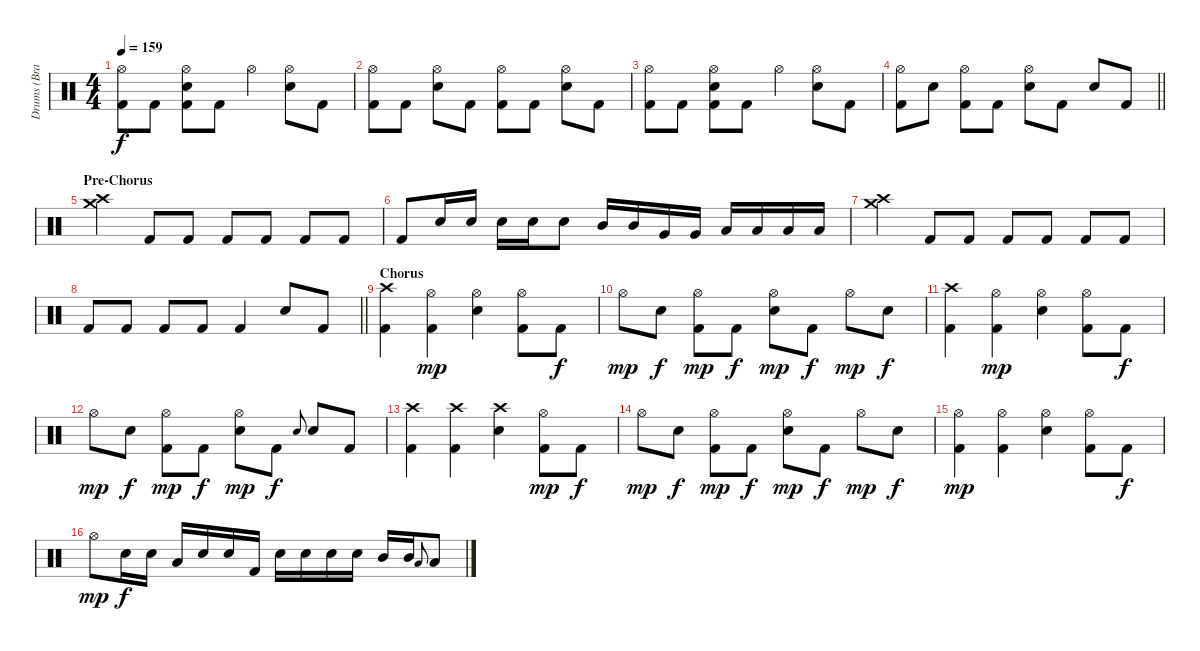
\track ("Drums (Brandon Saller)" "Drums (Bra") {instrument percussion}
\staff {score}
\articulation defaults
\ts (4 4)
\tempo 159
\clef neutral
\ks c
("Hi-Hat (open)" "Kick (hit) 2").8{dy f} "Kick (hit) 2".8 ("Hi-Hat (open)" "Electric Snare (hit)" "Kick (hit) 2").8 "Kick (hit) 2".8 "Hi-Hat (open)".4 ("Hi-Hat (open)" "Electric Snare (hit)").8 "Kick (hit) 2".8 |
("Hi-Hat (open)" "Kick (hit) 2").8 "Kick (hit) 2".8 ("Hi-Hat (open)" "Electric Snare (hit)").8 "Kick (hit) 2".8 ("Hi-Hat (open)" "Kick (hit) 2").8 "Kick (hit) 2".8 ("Hi-Hat (open)" "Electric Snare (hit)").8 "Kick (hit) 2".8 |
("Hi-Hat (open)" "Kick (hit) 2").8 "Kick (hit) 2".8 ("Hi-Hat (open)" "Electric Snare (hit)" "Kick (hit) 2").8 "Kick (hit) 2".8 "Hi-Hat (open)".4 ("Hi-Hat (open)" "Electric Snare (hit)").8 "Kick (hit) 2".8 |
\barLineRight lightlight
("Hi-Hat (open)" "Kick (hit) 2").8 "Electric Snare (hit)".8 ("Hi-Hat (open)" "Kick (hit) 2").8 "Kick (hit) 2".8 ("Hi-Hat (open)" "Electric Snare (hit)").8 "Kick (hit) 2".8 "Electric Snare (hit)".8 "Kick (hit) 2".8 |
\section ("" "Pre-Chorus")
("Crash high (hit)" "Crash medium (hit)").4 "Kick (hit) 2".8 "Kick (hit) 2".8 "Kick (hit) 2".8 "Kick (hit) 2".8 "Kick (hit) 2".8 "Kick (hit) 2".8 |
"Kick (hit) 2".8 "Electric Snare (hit)".16 "Electric Snare (hit)".16 "Electric Snare (hit)".16 "Electric Snare (hit)".16 "Electric Snare (hit)".8 "Mid Tom (hit)".16 "Mid Tom (hit)".16 "Very Low Tom (hit)".16 "Very Low Tom (hit)".16 "Low Tom (hit)".16 "Low Tom (hit)".16 "Low Floor Tom (hit)".16 "Low Floor Tom (hit)".16 |
("Crash high (hit)" "Crash medium (hit)").4 "Kick (hit) 2".8 "Kick (hit) 2".8 "Kick (hit) 2".8 "Kick (hit) 2".8 "Kick (hit) 2".8 "Kick (hit) 2".8 |
\barLineRight lightlight "Kick (hit) 2".8 "Kick (hit) 2".8 "Kick (hit) 2".8 "Kick (hit) 2".8 "Kick (hit) 2".4 "Electric Snare (hit)".8 "Kick (hit) 2".8
|
\section ("" "Chorus")
("Crash high (hit)" "Kick (hit) 2").4 ("Hi-Hat (open)" "Kick (hit) 2").4{dy mp} ("Hi-Hat (open)" "Electric Snare (hit)").4 ("Hi-Hat (open)" "Kick (hit) 2").8 "Kick (hit) 2".8{dy f} |
"Hi-Hat (open)".8{dy mp} "Electric Snare (hit)".8{dy f} ("Hi-Hat (open)" "Kick (hit) 2").8{dy mp} "Kick (hit) 2".8{dy f} ("Hi-Hat (open)" "Electric Snare (hit)").8{dy mp} "Kick (hit) 2".8{dy f} "Hi-Hat (open)".8{dy mp} "Electric Snare (hit)".8{dy f} |
("Crash high (hit)" "Kick (hit) 2").4 ("Hi-Hat (open)" "Kick (hit) 2").4{dy mp} ("Hi-Hat (open)" "Electric Snare (hit)").4 ("Hi-Hat (open)" "Kick (hit) 2").8 "Kick (hit) 2".8{dy f} |
"Hi-Hat (open)".8{dy mp} "Electric Snare (hit)".8{dy f} ("Hi-Hat (open)" "Kick (hit) 2").8{dy mp} "Kick (hit) 2".8{dy f} ("Hi-Hat (open)" "Electric Snare (hit)").8{dy mp} "Kick (hit) 2".8{dy f} "Electric Snare (hit)".8{gr onbeat} "Electric Snare (hit)".8 "Kick (hit) 2".8 |
("Crash high (hit)" "Kick (hit) 2").4 ("Crash high (hit)" "Kick (hit) 2").4 ("Crash high (hit)" "Electric Snare (hit)").4 ("Hi-Hat (open)" "Kick (hit) 2").8{dy mp} "Kick (hit) 2".8{dy f} |
"Hi-Hat (open)".8{dy mp} "Electric Snare (hit)".8{dy f} ("Hi-Hat (open)" "Kick (hit) 2").8{dy mp} "Kick (hit) 2".8{dy f} ("Hi-Hat (open)" "Electric Snare (hit)").8{dy mp} "Kick (hit) 2".8{dy f} "Hi-Hat (open)".8{dy mp} "Electric Snare (hit)".8{dy f} |
("Hi-Hat (open)" "Kick (hit) 2").4{dy mp} ("Hi-Hat (open)" "Kick (hit) 2").4 ("Hi-Hat (open)" "Electric Snare (hit)").4 ("Hi-Hat (open)" "Kick (hit) 2").8 "Kick (hit) 2".8{dy f} |
"Hi-Hat (open)".8{dy mp} "Electric Snare (hit)".16{dy f} "Electric Snare (hit)".16 "Low Tom (hit)".16 "Electric Snare (hit)".16 "Electric Snare (hit)".16 "Kick (hit) 2".16 "Electric Snare (hit)".16 "Electric Snare (hit)".16 "Electric Snare (hit)".16 "Electric Snare (hit)".16 "Mid Tom (hit)".16 "Mid Tom (hit)".16 "Low Tom (hit)".8{gr onbeat} "Low Tom (hit)".8
